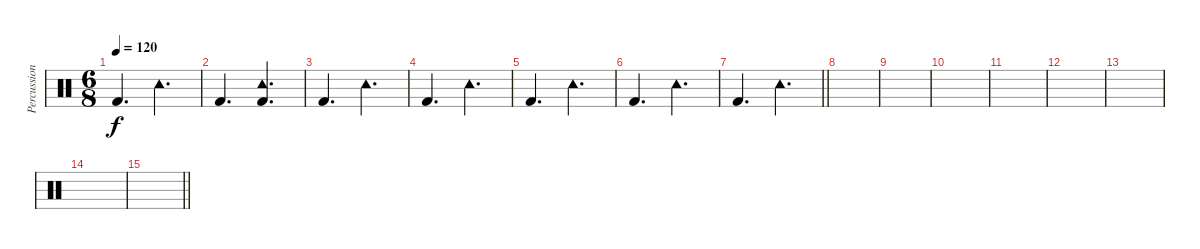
\track ("Percussion" "Percussion") {instrument percussion}
\staff {score}
\articulation defaults
\ts (6 8)
\tempo 120
\clef neutral
\ks c "Kick (hit) 2".4{d dy f} "Tambourine (hit)".4{d}
|
"Kick (hit) 2".4{d} ("Tambourine (hit)" "Kick (hit) 2").4{d} |
"Kick (hit) 2".4{d} "Tambourine (hit)".4{d} |
"Kick (hit) 2".4{d} "Tambourine (hit)".4{d} |
"Kick (hit) 2".4{d} "Tambourine (hit)".4{d} |
"Kick (hit) 2".4{d} "Tambourine (hit)".4{d} |
\barLineRight lightlight "Kick (hit) 2".4{d} "Tambourine (hit)".4{d}
|
|
|
|
|
|
|
|
\barLineRight lightlight
